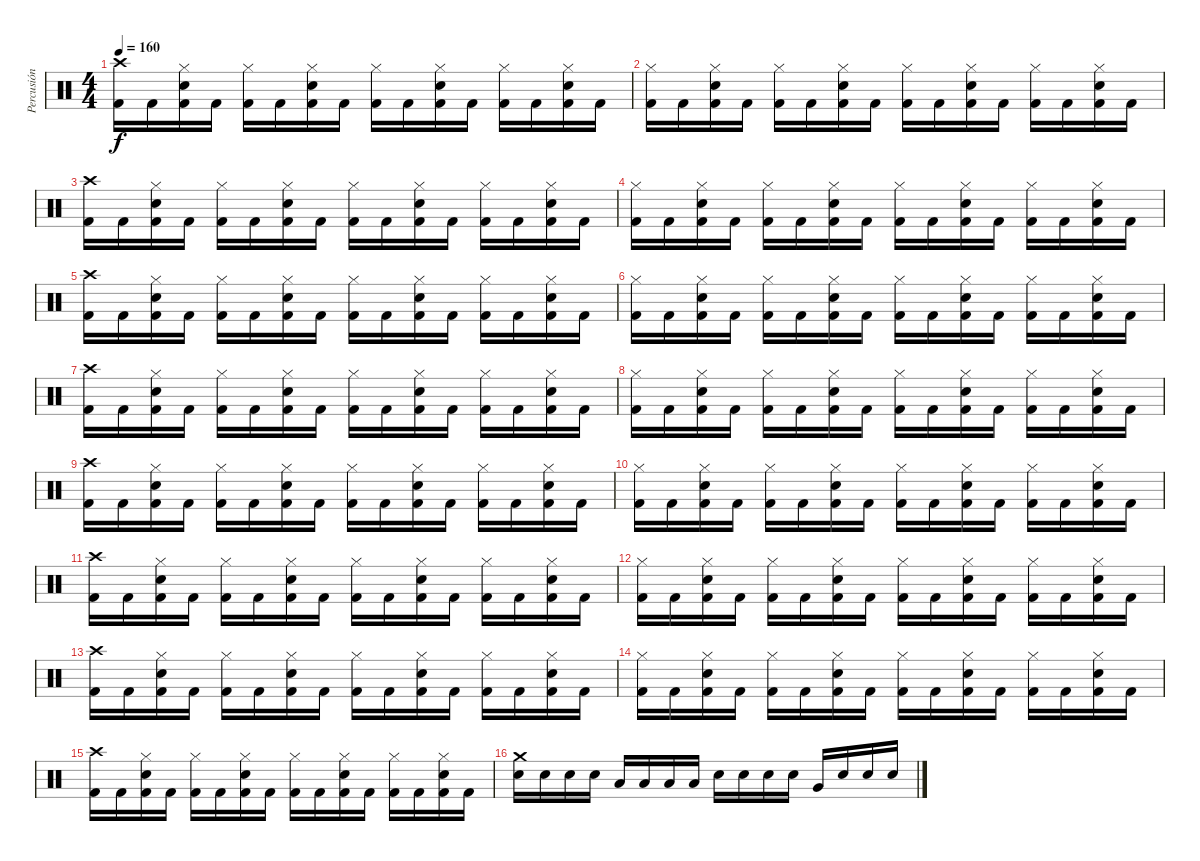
\track ("Percusión" "Percusión") {instrument percussion}
\staff {score}
\articulation defaults
\ts (4 4)
\tempo 160
\clef neutral
\ks c
("Crash high (hit)" "Kick (hit) 2").16{dy f} "Kick (hit) 2".16 ("Hi-Hat (closed)" "Electric Snare (hit)" "Kick (hit) 2").16 "Kick (hit) 2".16 ("Hi-Hat (closed)" "Kick (hit) 2").16 "Kick (hit) 2".16 ("Hi-Hat (closed)" "Electric Snare (hit)" "Kick (hit) 2").16 "Kick (hit) 2".16 ("Hi-Hat (closed)" "Kick (hit) 2").16 "Kick (hit) 2".16 ("Hi-Hat (closed)" "Electric Snare (hit)" "Kick (hit) 2").16 "Kick (hit) 2".16 ("Hi-Hat (closed)" "Kick (hit) 2").16 "Kick (hit) 2".16 ("Hi-Hat (closed)" "Electric Snare (hit)" "Kick (hit) 2").16 "Kick (hit) 2".16 |
("Hi-Hat (closed)" "Kick (hit) 2").16 "Kick (hit) 2".16 ("Hi-Hat (closed)" "Electric Snare (hit)" "Kick (hit) 2").16 "Kick (hit) 2".16 ("Hi-Hat (closed)" "Kick (hit) 2").16 "Kick (hit) 2".16 ("Hi-Hat (closed)" "Electric Snare (hit)" "Kick (hit) 2").16 "Kick (hit) 2".16 ("Hi-Hat (closed)" "Kick (hit) 2").16 "Kick (hit) 2".16 ("Hi-Hat (closed)" "Electric Snare (hit)" "Kick (hit) 2").16 "Kick (hit) 2".16 ("Hi-Hat (closed)" "Kick (hit) 2").16 "Kick (hit) 2".16 ("Hi-Hat (closed)" "Electric Snare (hit)" "Kick (hit) 2").16 "Kick (hit) 2".16 |
("Crash high (hit)" "Kick (hit) 2").16 "Kick (hit) 2".16 ("Hi-Hat (closed)" "Electric Snare (hit)" "Kick (hit) 2").16 "Kick (hit) 2".16 ("Hi-Hat (closed)" "Kick (hit) 2").16 "Kick (hit) 2".16 ("Hi-Hat (closed)" "Electric Snare (hit)" "Kick (hit) 2").16 "Kick (hit) 2".16 ("Hi-Hat (closed)" "Kick (hit) 2").16 "Kick (hit) 2".16 ("Hi-Hat (closed)" "Electric Snare (hit)" "Kick (hit) 2").16 "Kick (hit) 2".16 ("Hi-Hat (closed)" "Kick (hit) 2").16 "Kick (hit) 2".16 ("Hi-Hat (closed)" "Electric Snare (hit)" "Kick (hit) 2").16 "Kick (hit) 2".16 |
("Hi-Hat (closed)" "Kick (hit) 2").16 "Kick (hit) 2".16 ("Hi-Hat (closed)" "Electric Snare (hit)" "Kick (hit) 2").16 "Kick (hit) 2".16 ("Hi-Hat (closed)" "Kick (hit) 2").16 "Kick (hit) 2".16 ("Hi-Hat (closed)" "Electric Snare (hit)" "Kick (hit) 2").16 "Kick (hit) 2".16 ("Hi-Hat (closed)" "Kick (hit) 2").16 "Kick (hit) 2".16 ("Hi-Hat (closed)" "Electric Snare (hit)" "Kick (hit) 2").16 "Kick (hit) 2".16 ("Hi-Hat (closed)" "Kick (hit) 2").16 "Kick (hit) 2".16 ("Hi-Hat (closed)" "Electric Snare (hit)" "Kick (hit) 2").16 "Kick (hit) 2".16 |
("Crash high (hit)" "Kick (hit) 2").16 "Kick (hit) 2".16 ("Hi-Hat (closed)" "Electric Snare (hit)" "Kick (hit) 2").16 "Kick (hit) 2".16 ("Hi-Hat (closed)" "Kick (hit) 2").16 "Kick (hit) 2".16 ("Hi-Hat (closed)" "Electric Snare (hit)" "Kick (hit) 2").16 "Kick (hit) 2".16 ("Hi-Hat (closed)" "Kick (hit) 2").16 "Kick (hit) 2".16 ("Hi-Hat (closed)" "Electric Snare (hit)" "Kick (hit) 2").16 "Kick (hit) 2".16 ("Hi-Hat (closed)" "Kick (hit) 2").16 "Kick (hit) 2".16 ("Hi-Hat (closed)" "Electric Snare (hit)" "Kick (hit) 2").16 "Kick (hit) 2".16 |
("Hi-Hat (closed)" "Kick (hit) 2").16 "Kick (hit) 2".16 ("Hi-Hat (closed)" "Electric Snare (hit)" "Kick (hit) 2").16 "Kick (hit) 2".16 ("Hi-Hat (closed)" "Kick (hit) 2").16 "Kick (hit) 2".16 ("Hi-Hat (closed)" "Electric Snare (hit)" "Kick (hit) 2").16 "Kick (hit) 2".16 ("Hi-Hat (closed)" "Kick (hit) 2").16 "Kick (hit) 2".16 ("Hi-Hat (closed)" "Electric Snare (hit)" "Kick (hit) 2").16 "Kick (hit) 2".16 ("Hi-Hat (closed)" "Kick (hit) 2").16 "Kick (hit) 2".16 ("Hi-Hat (closed)" "Electric Snare (hit)" "Kick (hit) 2").16 "Kick (hit) 2".16 |
("Crash high (hit)" "Kick (hit) 2").16 "Kick (hit) 2".16 ("Hi-Hat (closed)" "Electric Snare (hit)" "Kick (hit) 2").16 "Kick (hit) 2".16 ("Hi-Hat (closed)" "Kick (hit) 2").16 "Kick (hit) 2".16 ("Hi-Hat (closed)" "Electric Snare (hit)" "Kick (hit) 2").16 "Kick (hit) 2".16 ("Hi-Hat (closed)" "Kick (hit) 2").16 "Kick (hit) 2".16 ("Hi-Hat (closed)" "Electric Snare (hit)" "Kick (hit) 2").16 "Kick (hit) 2".16 ("Hi-Hat (closed)" "Kick (hit) 2").16 "Kick (hit) 2".16 ("Hi-Hat (closed)" "Electric Snare (hit)" "Kick (hit) 2").16 "Kick (hit) 2".16 |
("Hi-Hat (closed)" "Kick (hit) 2").16 "Kick (hit) 2".16 ("Hi-Hat (closed)" "Electric Snare (hit)" "Kick (hit) 2").16 "Kick (hit) 2".16 ("Hi-Hat (closed)" "Kick (hit) 2").16 "Kick (hit) 2".16 ("Hi-Hat (closed)" "Electric Snare (hit)" "Kick (hit) 2").16 "Kick (hit) 2".16 ("Hi-Hat (closed)" "Kick (hit) 2").16 "Kick (hit) 2".16 ("Hi-Hat (closed)" "Electric Snare (hit)" "Kick (hit) 2").16 "Kick (hit) 2".16 ("Hi-Hat (closed)" "Kick (hit) 2").16 "Kick (hit) 2".16 ("Hi-Hat (closed)" "Electric Snare (hit)" "Kick (hit) 2").16 "Kick (hit) 2".16 |
("Crash high (hit)" "Kick (hit) 2").16 "Kick (hit) 2".16 ("Hi-Hat (closed)" "Electric Snare (hit)" "Kick (hit) 2").16 "Kick (hit) 2".16 ("Hi-Hat (closed)" "Kick (hit) 2").16 "Kick (hit) 2".16 ("Hi-Hat (closed)" "Electric Snare (hit)" "Kick (hit) 2").16 "Kick (hit) 2".16 ("Hi-Hat (closed)" "Kick (hit) 2").16 "Kick (hit) 2".16 ("Hi-Hat (closed)" "Electric Snare (hit)" "Kick (hit) 2").16 "Kick (hit) 2".16 ("Hi-Hat (closed)" "Kick (hit) 2").16 "Kick (hit) 2".16 ("Hi-Hat (closed)" "Electric Snare (hit)" "Kick (hit) 2").16 "Kick (hit) 2".16 |
("Hi-Hat (closed)" "Kick (hit) 2").16 "Kick (hit) 2".16 ("Hi-Hat (closed)" "Electric Snare (hit)" "Kick (hit) 2").16 "Kick (hit) 2".16 ("Hi-Hat (closed)" "Kick (hit) 2").16 "Kick (hit) 2".16 ("Hi-Hat (closed)" "Electric Snare (hit)" "Kick (hit) 2").16 "Kick (hit) 2".16 ("Hi-Hat (closed)" "Kick (hit) 2").16 "Kick (hit) 2".16 ("Hi-Hat (closed)" "Electric Snare (hit)" "Kick (hit) 2").16 "Kick (hit) 2".16 ("Hi-Hat (closed)" "Kick (hit) 2").16 "Kick (hit) 2".16 ("Hi-Hat (closed)" "Electric Snare (hit)" "Kick (hit) 2").16 "Kick (hit) 2".16 |
("Crash high (hit)" "Kick (hit) 2").16 "Kick (hit) 2".16 ("Hi-Hat (closed)" "Electric Snare (hit)" "Kick (hit) 2").16 "Kick (hit) 2".16 ("Hi-Hat (closed)" "Kick (hit) 2").16 "Kick (hit) 2".16 ("Hi-Hat (closed)" "Electric Snare (hit)" "Kick (hit) 2").16 "Kick (hit) 2".16 ("Hi-Hat (closed)" "Kick (hit) 2").16 "Kick (hit) 2".16 ("Hi-Hat (closed)" "Electric Snare (hit)" "Kick (hit) 2").16 "Kick (hit) 2".16 ("Hi-Hat (closed)" "Kick (hit) 2").16 "Kick (hit) 2".16 ("Hi-Hat (closed)" "Electric Snare (hit)" "Kick (hit) 2").16 "Kick (hit) 2".16 |
("Hi-Hat (closed)" "Kick (hit) 2").16 "Kick (hit) 2".16 ("Hi-Hat (closed)" "Electric Snare (hit)" "Kick (hit) 2").16 "Kick (hit) 2".16 ("Hi-Hat (closed)" "Kick (hit) 2").16 "Kick (hit) 2".16 ("Hi-Hat (closed)" "Electric Snare (hit)" "Kick (hit) 2").16 "Kick (hit) 2".16 ("Hi-Hat (closed)" "Kick (hit) 2").16 "Kick (hit) 2".16 ("Hi-Hat (closed)" "Electric Snare (hit)" "Kick (hit) 2").16 "Kick (hit) 2".16 ("Hi-Hat (closed)" "Kick (hit) 2").16 "Kick (hit) 2".16 ("Hi-Hat (closed)" "Electric Snare (hit)" "Kick (hit) 2").16 "Kick (hit) 2".16 |
("Crash high (hit)" "Kick (hit) 2").16 "Kick (hit) 2".16 ("Hi-Hat (closed)" "Electric Snare (hit)" "Kick (hit) 2").16 "Kick (hit) 2".16 ("Hi-Hat (closed)" "Kick (hit) 2").16 "Kick (hit) 2".16 ("Hi-Hat (closed)" "Electric Snare (hit)" "Kick (hit) 2").16 "Kick (hit) 2".16 ("Hi-Hat (closed)" "Kick (hit) 2").16 "Kick (hit) 2".16 ("Hi-Hat (closed)" "Electric Snare (hit)" "Kick (hit) 2").16 "Kick (hit) 2".16 ("Hi-Hat (closed)" "Kick (hit) 2").16 "Kick (hit) 2".16 ("Hi-Hat (closed)" "Electric Snare (hit)" "Kick (hit) 2").16 "Kick (hit) 2".16 |
("Hi-Hat (closed)" "Kick (hit) 2").16 "Kick (hit) 2".16 ("Hi-Hat (closed)" "Electric Snare (hit)" "Kick (hit) 2").16 "Kick (hit) 2".16 ("Hi-Hat (closed)" "Kick (hit) 2").16 "Kick (hit) 2".16 ("Hi-Hat (closed)" "Electric Snare (hit)" "Kick (hit) 2").16 "Kick (hit) 2".16 ("Hi-Hat (closed)" "Kick (hit) 2").16 "Kick (hit) 2".16 ("Hi-Hat (closed)" "Electric Snare (hit)" "Kick (hit) 2").16 "Kick (hit) 2".16 ("Hi-Hat (closed)" "Kick (hit) 2").16 "Kick (hit) 2".16 ("Hi-Hat (closed)" "Electric Snare (hit)" "Kick (hit) 2").16 "Kick (hit) 2".16 |
("Crash high (hit)" "Kick (hit) 2").16 "Kick (hit) 2".16 ("Hi-Hat (closed)" "Electric Snare (hit)" "Kick (hit) 2").16 "Kick (hit) 2".16 ("Hi-Hat (closed)" "Kick (hit) 2").16 "Kick (hit) 2".16 ("Hi-Hat (closed)" "Electric Snare (hit)" "Kick (hit) 2").16 "Kick (hit) 2".16 ("Hi-Hat (closed)" "Kick (hit) 2").16 "Kick (hit) 2".16 ("Hi-Hat (closed)" "Electric Snare (hit)" "Kick (hit) 2").16 "Kick (hit) 2".16 ("Hi-Hat (closed)" "Kick (hit) 2").16 "Kick (hit) 2".16 ("Hi-Hat (closed)" "Electric Snare (hit)" "Kick (hit) 2").16 "Kick (hit) 2".16 |
("Crash medium (hit)" "Electric Snare (hit)").16 "Electric Snare (hit)".16 "Electric Snare (hit)".16 "Electric Snare (hit)".16 "Low Tom (hit)".16 "Low Tom (hit)".16 "Low Tom (hit)".16 "Low Tom (hit)".16 "Electric Snare (hit)".16 "Electric Snare (hit)".16 "Electric Snare (hit)".16 "Electric Snare (hit)".16 "Very Low Tom (hit)".16 "Electric Snare (hit)".16 "Electric Snare (hit)".16 "Electric Snare (hit)".16
